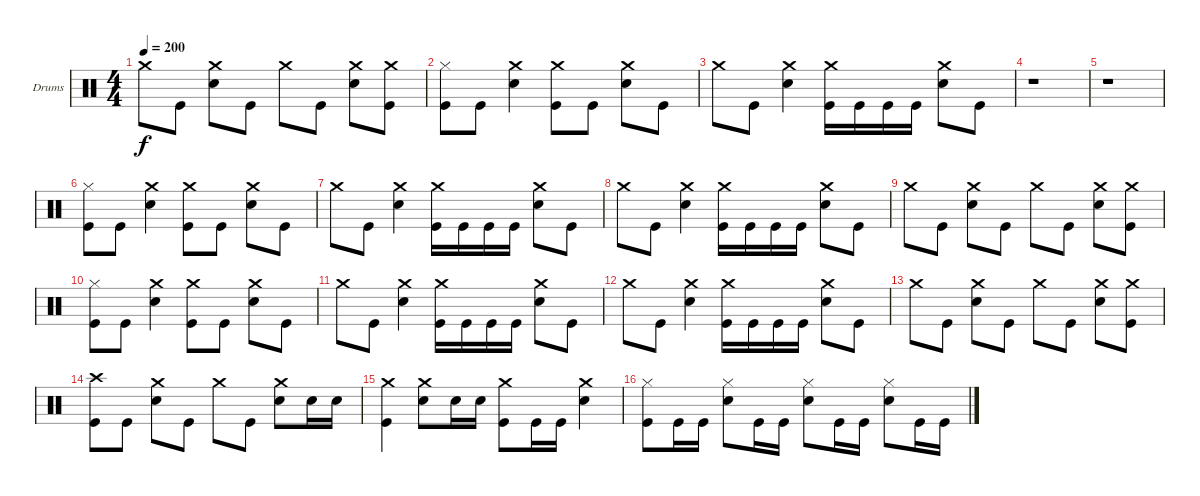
\bracketExtendMode groupsimilarinstruments
\firstSystemTrackNameOrientation horizontal
\otherSystemsTrackNameOrientation horizontal
\track ("Emile Bardou" "Drums") {instrument percussion}
\staff {score}
\articulation defaults
\ts (4 4)
\tempo 200
\clef neutral
\ks c "Crash medium (hit)".8{dy f} "Kick (hit)".8
("Crash medium (hit)" "Snare (hit) 2").8 "Kick (hit)".8 "Crash medium (hit)".8 "Kick (hit)".8 ("Crash medium (hit)" "Snare (hit) 2").8 ("Crash medium (hit)" "Kick (hit)").8 |
("Kick (hit)" "Hi-Hat (closed)").8 "Kick (hit)".8 ("Crash medium (hit)" "Snare (hit) 2").4 ("Crash medium (hit)" "Kick (hit)").8 "Kick (hit)".8 ("Crash medium (hit)" "Snare (hit) 2").8 "Kick (hit)".8 |
"Crash medium (hit)".8 "Kick (hit)".8 ("Crash medium (hit)" "Snare (hit) 2").4 ("Crash medium (hit)" "Kick (hit)").16 "Kick (hit)".16 "Kick (hit)".16 "Kick (hit)".16 ("Crash medium (hit)" "Snare (hit) 2").8 "Kick (hit)".8 |
r.1 |
r.1 |
("Kick (hit)" "Hi-Hat (closed)").8 "Kick (hit)".8 ("Crash medium (hit)" "Snare (hit) 2").4 ("Crash medium (hit)" "Kick (hit)").8 "Kick (hit)".8 ("Crash medium (hit)" "Snare (hit) 2").8 "Kick (hit)".8 |
"Crash medium (hit)".8 "Kick (hit)".8 ("Crash medium (hit)" "Snare (hit) 2").4 ("Crash medium (hit)" "Kick (hit)").16 "Kick (hit)".16 "Kick (hit)".16 "Kick (hit)".16 ("Crash medium (hit)" "Snare (hit) 2").8 "Kick (hit)".8 |
"Crash medium (hit)".8 "Kick (hit)".8 ("Crash medium (hit)" "Snare (hit) 2").4 ("Crash medium (hit)" "Kick (hit)").16 "Kick (hit)".16 "Kick (hit)".16 "Kick (hit)".16 ("Crash medium (hit)" "Snare (hit) 2").8 "Kick (hit)".8 |
"Crash medium (hit)".8 "Kick (hit)".8 ("Crash medium (hit)" "Snare (hit) 2").8 "Kick (hit)".8 "Crash medium (hit)".8 "Kick (hit)".8 ("Crash medium (hit)" "Snare (hit) 2").8 ("Crash medium (hit)" "Kick (hit)").8 |
("Kick (hit)" "Hi-Hat (closed)").8 "Kick (hit)".8 ("Crash medium (hit)" "Snare (hit) 2").4 ("Crash medium (hit)" "Kick (hit)").8 "Kick (hit)".8 ("Crash medium (hit)" "Snare (hit) 2").8 "Kick (hit)".8 |
"Crash medium (hit)".8 "Kick (hit)".8 ("Crash medium (hit)" "Snare (hit) 2").4 ("Crash medium (hit)" "Kick (hit)").16 "Kick (hit)".16 "Kick (hit)".16 "Kick (hit)".16 ("Crash medium (hit)" "Snare (hit) 2").8 "Kick (hit)".8 |
"Crash medium (hit)".8 "Kick (hit)".8 ("Crash medium (hit)" "Snare (hit) 2").4 ("Crash medium (hit)" "Kick (hit)").16 "Kick (hit)".16 "Kick (hit)".16 "Kick (hit)".16 ("Crash medium (hit)" "Snare (hit) 2").8 "Kick (hit)".8 |
"Crash medium (hit)".8 "Kick (hit)".8 ("Crash medium (hit)" "Snare (hit) 2").8 "Kick (hit)".8 "Crash medium (hit)".8 "Kick (hit)".8 ("Crash medium (hit)" "Snare (hit) 2").8 ("Crash medium (hit)" "Kick (hit)").8 |
("Kick (hit)" "Crash high (hit)").8 "Kick (hit)".8 ("Crash medium (hit)" "Snare (hit) 2").8 "Kick (hit)".8 "Crash medium (hit)".8 "Kick (hit)".8 ("Crash medium (hit)" "Snare (hit) 2").8 "Snare (hit) 2".16 "Snare (hit) 2".16 |
("Crash medium (hit)" "Kick (hit)").4 ("Crash medium (hit)" "Snare (hit) 2").8 "Snare (hit) 2".16 "Snare (hit) 2".16 ("Crash medium (hit)" "Kick (hit)").8 "Kick (hit)".16 "Kick (hit)".16 ("Crash medium (hit)" "Snare (hit) 2").4 |
("Kick (hit)" "Hi-Hat (closed)").8 "Kick (hit)".16 "Kick (hit)".16 ("Snare (hit) 2" "Hi-Hat (closed)").8 "Kick (hit)".16 "Kick (hit)".16 ("Snare (hit) 2" "Hi-Hat (closed)").8 "Kick (hit)".16 "Kick (hit)".16 ("Snare (hit) 2" "Hi-Hat (closed)").8 "Kick (hit)".16 "Kick (hit)".16
